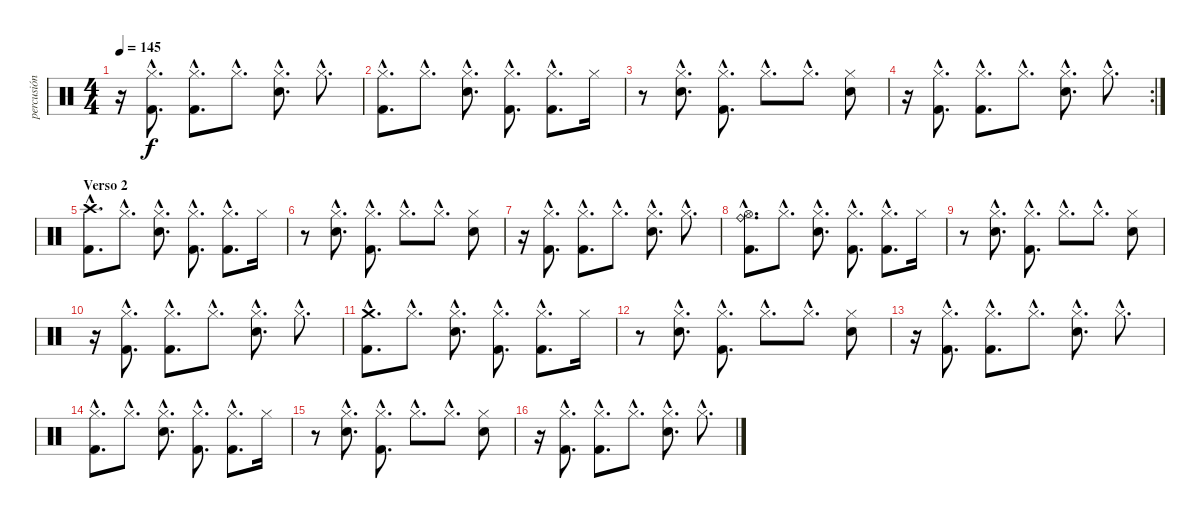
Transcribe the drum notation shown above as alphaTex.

\track ("percusión" "percusión") {instrument percussion}
\staff {score}
\articulation defaults
\ts (4 4)
\tempo 145
\clef neutral
\ks c
r.16{dy f} ("Kick (hit) 2"{hac} "Hi-Hat (closed)"{hac}).8{d} ("Kick (hit) 2"{hac} "Hi-Hat (closed)"{hac}).8{d} "Hi-Hat (closed)"{hac}.8{d} ("Hi-Hat (closed)"{hac} "Electric Snare (hit)"{hac}).8{d} "Hi-Hat (closed)"{hac}.8{d} |
("Kick (hit) 2"{hac} "Hi-Hat (closed)"{hac}).8{d} "Hi-Hat (closed)"{hac}.8{d} ("Hi-Hat (closed)"{hac} "Electric Snare (hit)"{hac}).8{d} ("Kick (hit) 2"{hac} "Hi-Hat (closed)"{hac}).8{d} ("Kick (hit) 2"{hac} "Hi-Hat (closed)"{hac}).8{d} "Hi-Hat (closed)".16 |
r.8 ("Hi-Hat (closed)"{hac} "Electric Snare (hit)"{hac}).8{d} ("Kick (hit) 2"{hac} "Hi-Hat (closed)"{hac}).8{d} "Hi-Hat (closed)"{hac}.8{d} "Hi-Hat (closed)"{hac}.8{d} ("Hi-Hat (closed)" "Electric Snare (hit)").8 |
\rc 2
r.16 ("Kick (hit) 2"{hac} "Hi-Hat (closed)"{hac}).8{d} ("Kick (hit) 2"{hac} "Hi-Hat (closed)"{hac}).8{d} "Hi-Hat (closed)"{hac}.8{d} ("Hi-Hat (closed)"{hac} "Electric Snare (hit)"{hac}).8{d} "Hi-Hat (closed)"{hac}.8{d} |
\section ("" "Verso 2")
("Kick (hit) 2"{hac} "Crash high (hit)"{hac}).8{d} "Hi-Hat (closed)"{hac}.8{d} ("Hi-Hat (closed)"{hac} "Electric Snare (hit)"{hac}).8{d} ("Kick (hit) 2"{hac} "Hi-Hat (closed)"{hac}).8{d} ("Kick (hit) 2"{hac} "Hi-Hat (closed)"{hac}).8{d} "Hi-Hat (closed)".16 |
r.8 ("Hi-Hat (closed)"{hac} "Electric Snare (hit)"{hac}).8{d} ("Kick (hit) 2"{hac} "Hi-Hat (closed)"{hac}).8{d} "Hi-Hat (closed)"{hac}.8{d} "Hi-Hat (closed)"{hac}.8{d} ("Hi-Hat (closed)" "Electric Snare (hit)").8 |
r.16 ("Kick (hit) 2"{hac} "Hi-Hat (closed)"{hac}).8{d} ("Kick (hit) 2"{hac} "Hi-Hat (closed)"{hac}).8{d} "Hi-Hat (closed)"{hac}.8{d} ("Hi-Hat (closed)"{hac} "Electric Snare (hit)"{hac}).8{d} "Hi-Hat (closed)"{hac}.8{d} |
("Kick (hit) 2"{hac} "Hi-Hat (open)"{hac} "Ride (bell)"{hac}).8{d} "Hi-Hat (closed)"{hac}.8{d} ("Hi-Hat (closed)"{hac} "Electric Snare (hit)"{hac}).8{d} ("Kick (hit) 2"{hac} "Hi-Hat (closed)"{hac}).8{d} ("Kick (hit) 2"{hac} "Hi-Hat (closed)"{hac}).8{d} "Hi-Hat (closed)".16 |
r.8 ("Hi-Hat (closed)"{hac} "Electric Snare (hit)"{hac}).8{d} ("Kick (hit) 2"{hac} "Hi-Hat (closed)"{hac}).8{d} "Hi-Hat (closed)"{hac}.8{d} "Hi-Hat (closed)"{hac}.8{d} ("Hi-Hat (closed)" "Electric Snare (hit)").8 |
r.16 ("Kick (hit) 2"{hac} "Hi-Hat (closed)"{hac}).8{d} ("Kick (hit) 2"{hac} "Hi-Hat (closed)"{hac}).8{d} "Hi-Hat (closed)"{hac}.8{d} ("Hi-Hat (closed)"{hac} "Electric Snare (hit)"{hac}).8{d} "Hi-Hat (closed)"{hac}.8{d} |
("Kick (hit) 2"{hac} "Crash medium (hit)"{hac}).8{d} "Hi-Hat (closed)"{hac}.8{d} ("Hi-Hat (closed)"{hac} "Electric Snare (hit)"{hac}).8{d} ("Kick (hit) 2"{hac} "Hi-Hat (closed)"{hac}).8{d} ("Kick (hit) 2"{hac} "Hi-Hat (closed)"{hac}).8{d} "Hi-Hat (closed)".16 |
r.8 ("Hi-Hat (closed)"{hac} "Electric Snare (hit)"{hac}).8{d} ("Kick (hit) 2"{hac} "Hi-Hat (closed)"{hac}).8{d} "Hi-Hat (closed)"{hac}.8{d} "Hi-Hat (closed)"{hac}.8{d} ("Hi-Hat (closed)" "Electric Snare (hit)").8 |
r.16 ("Kick (hit) 2"{hac} "Hi-Hat (closed)"{hac}).8{d} ("Kick (hit) 2"{hac} "Hi-Hat (closed)"{hac}).8{d} "Hi-Hat (closed)"{hac}.8{d} ("Hi-Hat (closed)"{hac} "Electric Snare (hit)"{hac}).8{d} "Hi-Hat (closed)"{hac}.8{d} |
("Kick (hit) 2"{hac} "Hi-Hat (closed)"{hac}).8{d} "Hi-Hat (closed)"{hac}.8{d} ("Hi-Hat (closed)"{hac} "Electric Snare (hit)"{hac}).8{d} ("Kick (hit) 2"{hac} "Hi-Hat (closed)"{hac}).8{d} ("Kick (hit) 2"{hac} "Hi-Hat (closed)"{hac}).8{d} "Hi-Hat (closed)".16 |
r.8 ("Hi-Hat (closed)"{hac} "Electric Snare (hit)"{hac}).8{d} ("Kick (hit) 2"{hac} "Hi-Hat (closed)"{hac}).8{d} "Hi-Hat (closed)"{hac}.8{d} "Hi-Hat (closed)"{hac}.8{d} ("Hi-Hat (closed)" "Electric Snare (hit)").8 |
r.16 ("Kick (hit) 2"{hac} "Hi-Hat (closed)"{hac}).8{d} ("Kick (hit) 2"{hac} "Hi-Hat (closed)"{hac}).8{d} "Hi-Hat (closed)"{hac}.8{d} ("Hi-Hat (closed)"{hac} "Electric Snare (hit)"{hac}).8{d} "Hi-Hat (closed)"{hac}.8{d}
